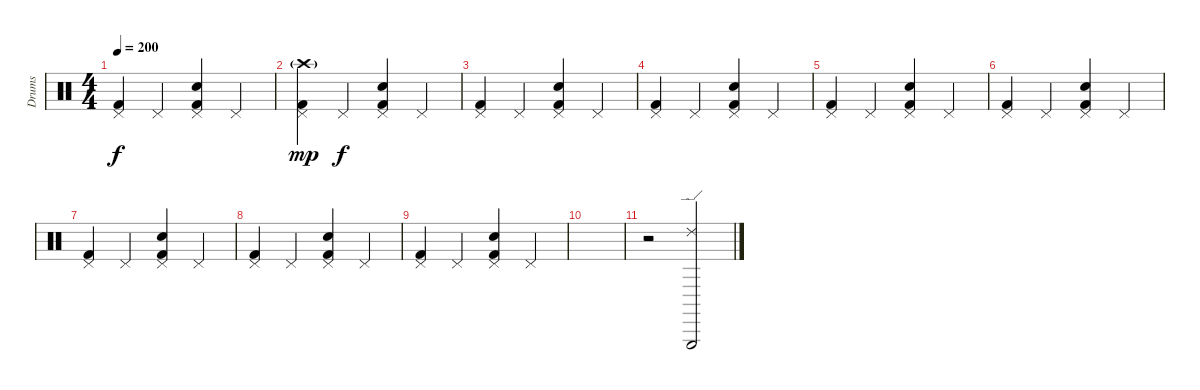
\track ("Drums" "Drums") {instrument percussion}
\staff {score}
\articulation defaults
\ts (4 4)
\tempo 200
\clef neutral
\ks c
("Pedal Hi-Hat (hit)" "Kick (hit) 2").4{dy f} "Pedal Hi-Hat (hit)".4 ("Pedal Hi-Hat (hit)" "Kick (hit) 2" "Snare (hit) 2").4 "Pedal Hi-Hat (hit)".4 |
("Pedal Hi-Hat (hit)" "Crash high (hit)"{g} "Kick (hit) 2").4{dy mp} "Pedal Hi-Hat (hit)".4{dy f} ("Pedal Hi-Hat (hit)" "Kick (hit) 2" "Snare (hit) 2").4 "Pedal Hi-Hat (hit)".4 |
("Pedal Hi-Hat (hit)" "Kick (hit) 2").4 "Pedal Hi-Hat (hit)".4 ("Pedal Hi-Hat (hit)" "Kick (hit) 2" "Snare (hit) 2").4 "Pedal Hi-Hat (hit)".4 |
("Pedal Hi-Hat (hit)" "Kick (hit) 2").4 "Pedal Hi-Hat (hit)".4 ("Pedal Hi-Hat (hit)" "Kick (hit) 2" "Snare (hit) 2").4 "Pedal Hi-Hat (hit)".4 |
("Pedal Hi-Hat (hit)" "Kick (hit) 2").4 "Pedal Hi-Hat (hit)".4 ("Pedal Hi-Hat (hit)" "Kick (hit) 2" "Snare (hit) 2").4 "Pedal Hi-Hat (hit)".4 |
("Pedal Hi-Hat (hit)" "Kick (hit) 2").4 "Pedal Hi-Hat (hit)".4 ("Pedal Hi-Hat (hit)" "Kick (hit) 2" "Snare (hit) 2").4 "Pedal Hi-Hat (hit)".4 |
("Pedal Hi-Hat (hit)" "Kick (hit) 2").4 "Pedal Hi-Hat (hit)".4 ("Pedal Hi-Hat (hit)" "Kick (hit) 2" "Snare (hit) 2").4 "Pedal Hi-Hat (hit)".4 |
("Pedal Hi-Hat (hit)" "Kick (hit) 2").4 "Pedal Hi-Hat (hit)".4 ("Pedal Hi-Hat (hit)" "Kick (hit) 2" "Snare (hit) 2").4 "Pedal Hi-Hat (hit)".4 |
("Pedal Hi-Hat (hit)" "Kick (hit) 2").4 "Pedal Hi-Hat (hit)".4 ("Pedal Hi-Hat (hit)" "Kick (hit) 2" "Snare (hit) 2").4 "Pedal Hi-Hat (hit)".4 |
|
r.2 ("Ride (edge) 2" "Triangle (hit)").2
